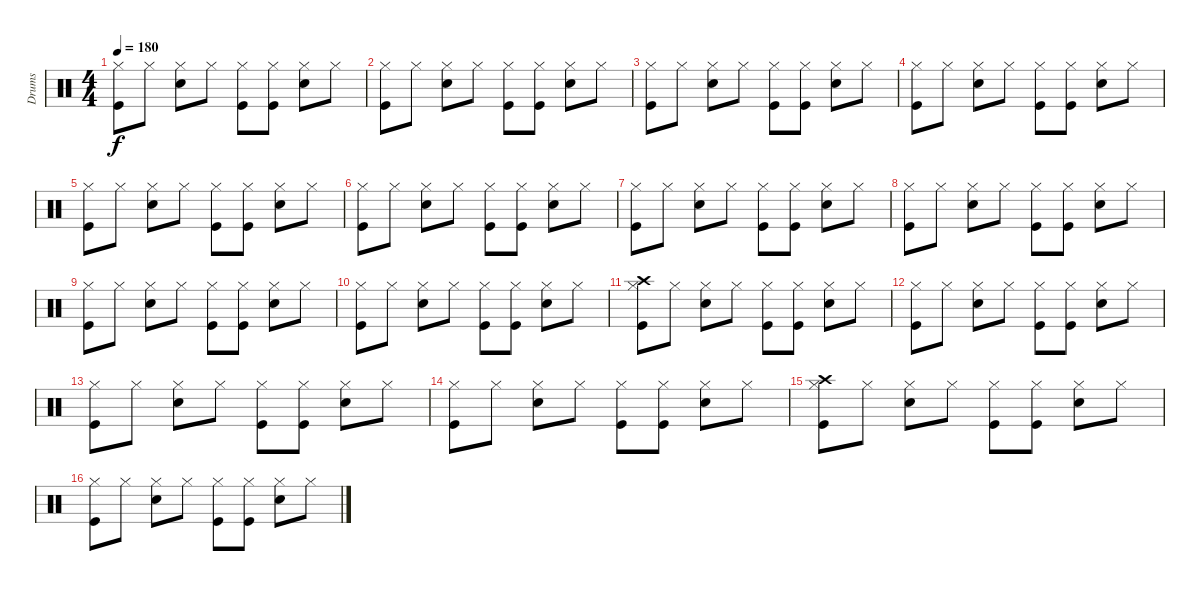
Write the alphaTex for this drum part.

\track ("Drums" "Drums") {instrument percussion}
\staff {score}
\articulation defaults
\ts (4 4)
\tempo 180
\clef neutral
\ks c
("Hi-Hat (closed)" "Kick (hit)").8{dy f} "Hi-Hat (closed)".8 ("Hi-Hat (closed)" "Electric Snare (hit)").8 "Hi-Hat (closed)".8 ("Kick (hit)" "Hi-Hat (closed)").8 ("Hi-Hat (closed)" "Kick (hit)").8 ("Hi-Hat (closed)" "Electric Snare (hit)").8 "Hi-Hat (closed)".8 |
("Hi-Hat (closed)" "Kick (hit)").8 "Hi-Hat (closed)".8 ("Hi-Hat (closed)" "Electric Snare (hit)").8 "Hi-Hat (closed)".8 ("Kick (hit)" "Hi-Hat (closed)").8 ("Hi-Hat (closed)" "Kick (hit)").8 ("Hi-Hat (closed)" "Electric Snare (hit)").8 "Hi-Hat (closed)".8 |
("Hi-Hat (closed)" "Kick (hit)").8 "Hi-Hat (closed)".8 ("Hi-Hat (closed)" "Electric Snare (hit)").8 "Hi-Hat (closed)".8 ("Kick (hit)" "Hi-Hat (closed)").8 ("Hi-Hat (closed)" "Kick (hit)").8 ("Hi-Hat (closed)" "Electric Snare (hit)").8 "Hi-Hat (closed)".8 |
("Hi-Hat (closed)" "Kick (hit)").8 "Hi-Hat (closed)".8 ("Hi-Hat (closed)" "Electric Snare (hit)").8 "Hi-Hat (closed)".8 ("Kick (hit)" "Hi-Hat (closed)").8 ("Hi-Hat (closed)" "Kick (hit)").8 ("Hi-Hat (closed)" "Electric Snare (hit)").8 "Hi-Hat (closed)".8 |
("Hi-Hat (closed)" "Kick (hit)").8 "Hi-Hat (closed)".8 ("Hi-Hat (closed)" "Electric Snare (hit)").8 "Hi-Hat (closed)".8 ("Kick (hit)" "Hi-Hat (closed)").8 ("Hi-Hat (closed)" "Kick (hit)").8 ("Hi-Hat (closed)" "Electric Snare (hit)").8 "Hi-Hat (closed)".8 |
("Hi-Hat (closed)" "Kick (hit)").8 "Hi-Hat (closed)".8 ("Hi-Hat (closed)" "Electric Snare (hit)").8 "Hi-Hat (closed)".8 ("Kick (hit)" "Hi-Hat (closed)").8 ("Hi-Hat (closed)" "Kick (hit)").8 ("Hi-Hat (closed)" "Electric Snare (hit)").8 "Hi-Hat (closed)".8 |
("Hi-Hat (closed)" "Kick (hit)").8 "Hi-Hat (closed)".8 ("Hi-Hat (closed)" "Electric Snare (hit)").8 "Hi-Hat (closed)".8 ("Kick (hit)" "Hi-Hat (closed)").8 ("Hi-Hat (closed)" "Kick (hit)").8 ("Hi-Hat (closed)" "Electric Snare (hit)").8 "Hi-Hat (closed)".8 |
("Hi-Hat (closed)" "Kick (hit)").8 "Hi-Hat (closed)".8 ("Hi-Hat (closed)" "Electric Snare (hit)").8 "Hi-Hat (closed)".8 ("Kick (hit)" "Hi-Hat (closed)").8 ("Hi-Hat (closed)" "Kick (hit)").8 ("Hi-Hat (closed)" "Electric Snare (hit)").8 "Hi-Hat (closed)".8 |
("Hi-Hat (closed)" "Kick (hit)").8 "Hi-Hat (closed)".8 ("Hi-Hat (closed)" "Electric Snare (hit)").8 "Hi-Hat (closed)".8 ("Kick (hit)" "Hi-Hat (closed)").8 ("Hi-Hat (closed)" "Kick (hit)").8 ("Hi-Hat (closed)" "Electric Snare (hit)").8 "Hi-Hat (closed)".8 |
("Hi-Hat (closed)" "Kick (hit)").8 "Hi-Hat (closed)".8 ("Hi-Hat (closed)" "Electric Snare (hit)").8 "Hi-Hat (closed)".8 ("Kick (hit)" "Hi-Hat (closed)").8 ("Hi-Hat (closed)" "Kick (hit)").8 ("Hi-Hat (closed)" "Electric Snare (hit)").8 "Hi-Hat (closed)".8 |
("Crash high (hit)" "Hi-Hat (closed)" "Kick (hit)").8 "Hi-Hat (closed)".8 ("Hi-Hat (closed)" "Electric Snare (hit)").8 "Hi-Hat (closed)".8 ("Kick (hit)" "Hi-Hat (closed)").8 ("Hi-Hat (closed)" "Kick (hit)").8 ("Hi-Hat (closed)" "Electric Snare (hit)").8 "Hi-Hat (closed)".8 |
("Hi-Hat (closed)" "Kick (hit)").8 "Hi-Hat (closed)".8 ("Hi-Hat (closed)" "Electric Snare (hit)").8 "Hi-Hat (closed)".8 ("Kick (hit)" "Hi-Hat (closed)").8 ("Hi-Hat (closed)" "Kick (hit)").8 ("Hi-Hat (closed)" "Electric Snare (hit)").8 "Hi-Hat (closed)".8 |
("Hi-Hat (closed)" "Kick (hit)").8 "Hi-Hat (closed)".8 ("Hi-Hat (closed)" "Electric Snare (hit)").8 "Hi-Hat (closed)".8 ("Kick (hit)" "Hi-Hat (closed)").8 ("Hi-Hat (closed)" "Kick (hit)").8 ("Hi-Hat (closed)" "Electric Snare (hit)").8 "Hi-Hat (closed)".8 |
("Hi-Hat (closed)" "Kick (hit)").8 "Hi-Hat (closed)".8 ("Hi-Hat (closed)" "Electric Snare (hit)").8 "Hi-Hat (closed)".8 ("Kick (hit)" "Hi-Hat (closed)").8 ("Hi-Hat (closed)" "Kick (hit)").8 ("Hi-Hat (closed)" "Electric Snare (hit)").8 "Hi-Hat (closed)".8 |
("Crash high (hit)" "Hi-Hat (closed)" "Kick (hit)").8 "Hi-Hat (closed)".8 ("Hi-Hat (closed)" "Electric Snare (hit)").8 "Hi-Hat (closed)".8 ("Kick (hit)" "Hi-Hat (closed)").8 ("Hi-Hat (closed)" "Kick (hit)").8 ("Hi-Hat (closed)" "Electric Snare (hit)").8 "Hi-Hat (closed)".8 |
("Hi-Hat (closed)" "Kick (hit)").8 "Hi-Hat (closed)".8 ("Hi-Hat (closed)" "Electric Snare (hit)").8 "Hi-Hat (closed)".8 ("Kick (hit)" "Hi-Hat (closed)").8 ("Hi-Hat (closed)" "Kick (hit)").8 ("Hi-Hat (closed)" "Electric Snare (hit)").8 "Hi-Hat (closed)".8
